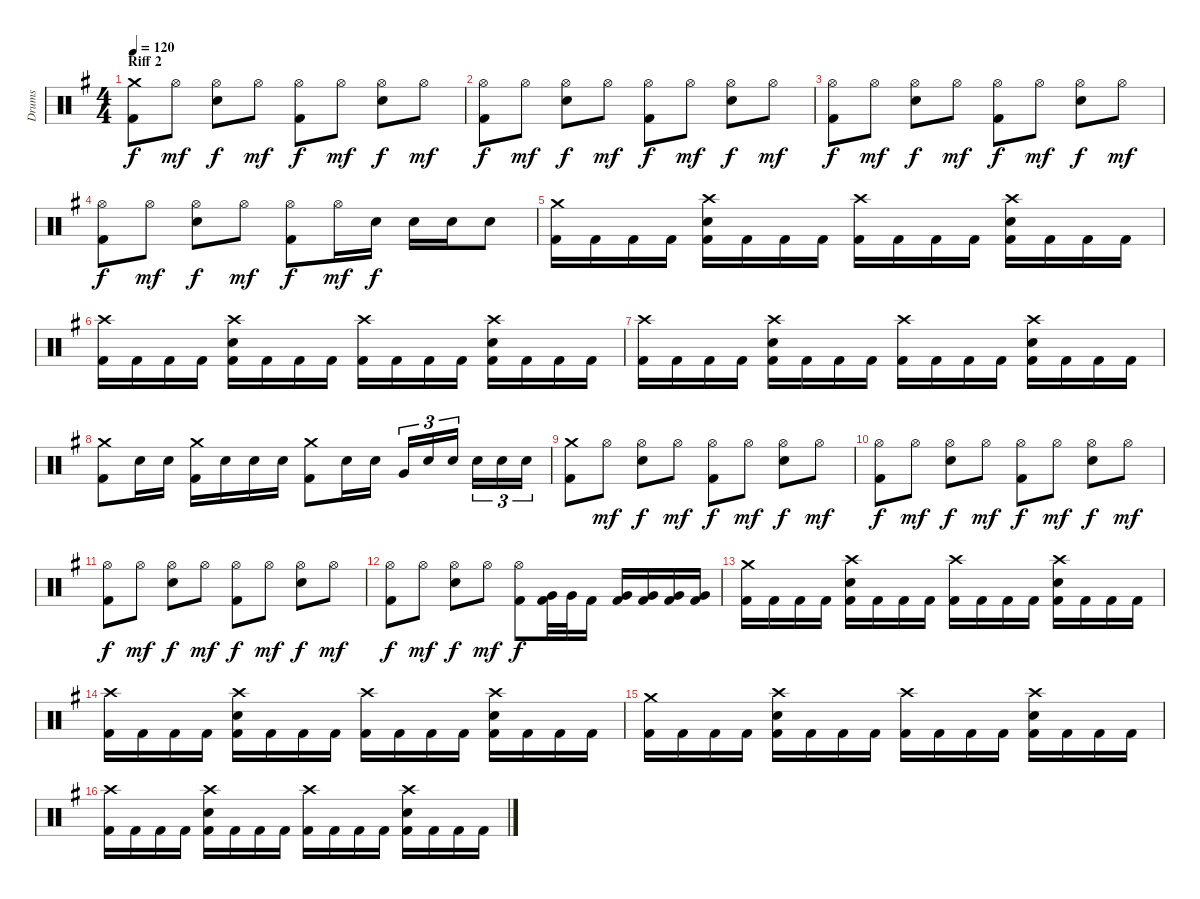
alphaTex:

\track ("Drums" "Drums") {instrument percussion}
\staff {score}
\articulation defaults
\ts (4 4)
\section ("" "Riff 2")
\tempo 120
\clef neutral
\ks eminor
("Crash medium (hit)" "Kick (hit) 2").8{dy f} "Hi-Hat (open)".8{dy mf} ("Electric Snare (hit)" "Hi-Hat (open)").8{dy f} "Hi-Hat (open)".8{dy mf} ("Kick (hit) 2" "Hi-Hat (open)").8{dy f} "Hi-Hat (open)".8{dy mf} ("Electric Snare (hit)" "Hi-Hat (open)").8{dy f} "Hi-Hat (open)".8{dy mf} |
("Kick (hit) 2" "Hi-Hat (open)").8{dy f} "Hi-Hat (open)".8{dy mf} ("Electric Snare (hit)" "Hi-Hat (open)").8{dy f} "Hi-Hat (open)".8{dy mf} ("Kick (hit) 2" "Hi-Hat (open)").8{dy f} "Hi-Hat (open)".8{dy mf} ("Electric Snare (hit)" "Hi-Hat (open)").8{dy f} "Hi-Hat (open)".8{dy mf} |
("Hi-Hat (open)" "Kick (hit) 2").8{dy f} "Hi-Hat (open)".8{dy mf} ("Electric Snare (hit)" "Hi-Hat (open)").8{dy f} "Hi-Hat (open)".8{dy mf} ("Kick (hit) 2" "Hi-Hat (open)").8{dy f} "Hi-Hat (open)".8{dy mf} ("Electric Snare (hit)" "Hi-Hat (open)").8{dy f} "Hi-Hat (open)".8{dy mf} |
("Kick (hit) 2" "Hi-Hat (open)").8{dy f} "Hi-Hat (open)".8{dy mf} ("Electric Snare (hit)" "Hi-Hat (open)").8{dy f} "Hi-Hat (open)".8{dy mf} ("Kick (hit) 2" "Hi-Hat (open)").8{dy f} "Hi-Hat (open)".16{dy mf} "Electric Snare (hit)".16{dy f} "Electric Snare (hit)".16 "Electric Snare (hit)".16 "Electric Snare (hit)".8 |
("Kick (hit) 2" "Crash medium (hit)").16 "Kick (hit) 2".16 "Kick (hit) 2".16 "Kick (hit) 2".16 ("Kick (hit) 2" "Electric Snare (hit)" "Crash high (hit)").16 "Kick (hit) 2".16 "Kick (hit) 2".16 "Kick (hit) 2".16 ("Kick (hit) 2" "Crash high (hit)").16 "Kick (hit) 2".16 "Kick (hit) 2".16 "Kick (hit) 2".16 ("Kick (hit) 2" "Electric Snare (hit)" "Crash high (hit)").16 "Kick (hit) 2".16 "Kick (hit) 2".16 "Kick (hit) 2".16 |
("Kick (hit) 2" "Crash high (hit)").16 "Kick (hit) 2".16 "Kick (hit) 2".16 "Kick (hit) 2".16 ("Kick (hit) 2" "Electric Snare (hit)" "Crash high (hit)").16 "Kick (hit) 2".16 "Kick (hit) 2".16 "Kick (hit) 2".16 ("Kick (hit) 2" "Crash high (hit)").16 "Kick (hit) 2".16 "Kick (hit) 2".16 "Kick (hit) 2".16 ("Kick (hit) 2" "Electric Snare (hit)" "Crash high (hit)").16 "Kick (hit) 2".16 "Kick (hit) 2".16 "Kick (hit) 2".16 |
("Kick (hit) 2" "Crash high (hit)").16 "Kick (hit) 2".16 "Kick (hit) 2".16 "Kick (hit) 2".16 ("Kick (hit) 2" "Electric Snare (hit)" "Crash high (hit)").16 "Kick (hit) 2".16 "Kick (hit) 2".16 "Kick (hit) 2".16 ("Kick (hit) 2" "Crash high (hit)").16 "Kick (hit) 2".16 "Kick (hit) 2".16 "Kick (hit) 2".16 ("Kick (hit) 2" "Electric Snare (hit)" "Crash high (hit)").16 "Kick (hit) 2".16 "Kick (hit) 2".16 "Kick (hit) 2".16 |
("Kick (hit) 2" "Crash medium (hit)").8 "Electric Snare (hit)".16 "Electric Snare (hit)".16 ("Crash medium (hit)" "Kick (hit) 2").16 "Electric Snare (hit)".16 "Electric Snare (hit)".16 "Electric Snare (hit)".16 ("Kick (hit) 2" "Crash medium (hit)").8 "Electric Snare (hit)".16 "Electric Snare (hit)".16 "Very Low Tom (hit)".16{tu (3 2)} "Electric Snare (hit)".16{tu (3 2)} "Electric Snare (hit)".16{tu (3 2) beam splitsecondary} "Electric Snare (hit)".16{tu (3 2)} "Electric Snare (hit)".16{tu (3 2)} "Electric Snare (hit)".16{tu (3 2)} |
("Crash medium (hit)" "Kick (hit) 2").8 "Hi-Hat (open)".8{dy mf} ("Electric Snare (hit)" "Hi-Hat (open)").8{dy f} "Hi-Hat (open)".8{dy mf} ("Kick (hit) 2" "Hi-Hat (open)").8{dy f} "Hi-Hat (open)".8{dy mf} ("Electric Snare (hit)" "Hi-Hat (open)").8{dy f} "Hi-Hat (open)".8{dy mf} |
("Kick (hit) 2" "Hi-Hat (open)").8{dy f} "Hi-Hat (open)".8{dy mf} ("Electric Snare (hit)" "Hi-Hat (open)").8{dy f} "Hi-Hat (open)".8{dy mf} ("Kick (hit) 2" "Hi-Hat (open)").8{dy f} "Hi-Hat (open)".8{dy mf} ("Electric Snare (hit)" "Hi-Hat (open)").8{dy f} "Hi-Hat (open)".8{dy mf} |
("Hi-Hat (open)" "Kick (hit) 2").8{dy f} "Hi-Hat (open)".8{dy mf} ("Electric Snare (hit)" "Hi-Hat (open)").8{dy f} "Hi-Hat (open)".8{dy mf} ("Kick (hit) 2" "Hi-Hat (open)").8{dy f} "Hi-Hat (open)".8{dy mf} ("Electric Snare (hit)" "Hi-Hat (open)").8{dy f} "Hi-Hat (open)".8{dy mf} |
("Kick (hit) 2" "Hi-Hat (open)").8{dy f} "Hi-Hat (open)".8{dy mf} ("Electric Snare (hit)" "Hi-Hat (open)").8{dy f} "Hi-Hat (open)".8{dy mf} ("Kick (hit) 2" "Hi-Hat (open)").8{dy f} ("Very Low Tom (hit)" "Kick (hit) 2").32 "Very Low Tom (hit)".32 "Kick (hit) 2".16 ("Kick (hit) 2" "Very Low Tom (hit)").16 ("Kick (hit) 2" "Very Low Tom (hit)").16 ("Kick (hit) 2" "Very Low Tom (hit)").16 ("Kick (hit) 2" "Very Low Tom (hit)").16 |
("Kick (hit) 2" "Crash medium (hit)").16 "Kick (hit) 2".16 "Kick (hit) 2".16 "Kick (hit) 2".16 ("Kick (hit) 2" "Electric Snare (hit)" "Crash high (hit)").16 "Kick (hit) 2".16 "Kick (hit) 2".16 "Kick (hit) 2".16 ("Kick (hit) 2" "Crash high (hit)").16 "Kick (hit) 2".16 "Kick (hit) 2".16 "Kick (hit) 2".16 ("Kick (hit) 2" "Electric Snare (hit)" "Crash high (hit)").16 "Kick (hit) 2".16 "Kick (hit) 2".16 "Kick (hit) 2".16 |
("Kick (hit) 2" "Crash high (hit)").16 "Kick (hit) 2".16 "Kick (hit) 2".16 "Kick (hit) 2".16 ("Kick (hit) 2" "Electric Snare (hit)" "Crash high (hit)").16 "Kick (hit) 2".16 "Kick (hit) 2".16 "Kick (hit) 2".16 ("Kick (hit) 2" "Crash high (hit)").16 "Kick (hit) 2".16 "Kick (hit) 2".16 "Kick (hit) 2".16 ("Kick (hit) 2" "Electric Snare (hit)" "Crash high (hit)").16 "Kick (hit) 2".16 "Kick (hit) 2".16 "Kick (hit) 2".16 |
("Kick (hit) 2" "Crash medium (hit)").16 "Kick (hit) 2".16 "Kick (hit) 2".16 "Kick (hit) 2".16 ("Kick (hit) 2" "Electric Snare (hit)" "Crash high (hit)").16 "Kick (hit) 2".16 "Kick (hit) 2".16 "Kick (hit) 2".16 ("Kick (hit) 2" "Crash high (hit)").16 "Kick (hit) 2".16 "Kick (hit) 2".16 "Kick (hit) 2".16 ("Kick (hit) 2" "Electric Snare (hit)" "Crash high (hit)").16 "Kick (hit) 2".16 "Kick (hit) 2".16 "Kick (hit) 2".16 |
("Kick (hit) 2" "Crash high (hit)").16 "Kick (hit) 2".16 "Kick (hit) 2".16 "Kick (hit) 2".16 ("Kick (hit) 2" "Electric Snare (hit)" "Crash high (hit)").16 "Kick (hit) 2".16 "Kick (hit) 2".16 "Kick (hit) 2".16 ("Kick (hit) 2" "Crash high (hit)").16 "Kick (hit) 2".16 "Kick (hit) 2".16 "Kick (hit) 2".16 ("Kick (hit) 2" "Electric Snare (hit)" "Crash high (hit)").16 "Kick (hit) 2".16 "Kick (hit) 2".16 "Kick (hit) 2".16
